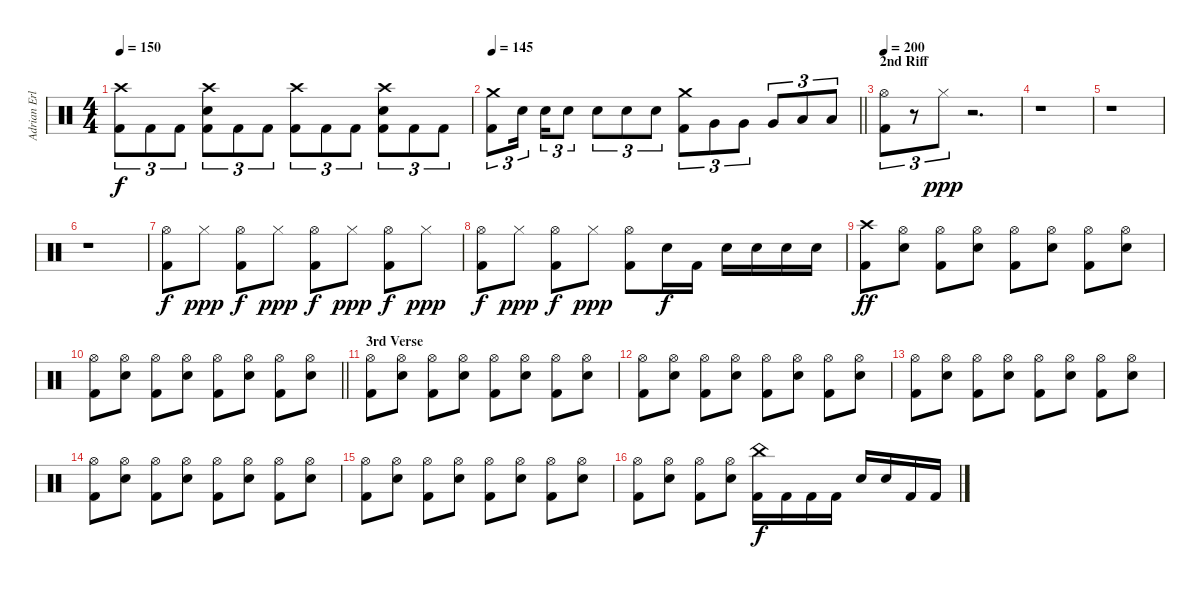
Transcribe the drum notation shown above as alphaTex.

\track ("Adrian Erlandsson" "Adrian Erl") {instrument percussion}
\staff {score}
\articulation defaults
\ts (4 4)
\tempo 150
\clef neutral
\ks c
("Crash high (hit)" "Kick (hit) 2").8{tu (3 2) dy f} "Kick (hit) 2".8{tu (3 2)} "Kick (hit) 2".8{tu (3 2)} ("Crash high (hit)" "Snare (hit) 2" "Kick (hit) 2").8{tu (3 2)} "Kick (hit) 2".8{tu (3 2)} "Kick (hit) 2".8{tu (3 2)} ("Crash high (hit)" "Kick (hit) 2").8{tu (3 2)} "Kick (hit) 2".8{tu (3 2)} "Kick (hit) 2".8{tu (3 2)} ("Crash high (hit)" "Snare (hit) 2" "Kick (hit) 2").8{tu (3 2)} "Kick (hit) 2".8{tu (3 2)} "Kick (hit) 2".8{tu (3 2)} |
\tempo 145
\barLineRight lightlight
("Crash medium (hit)" "Kick (hit) 2").8{tu (3 2)} "Snare (hit) 2".16{tu (3 2) beam splitsecondary} "Snare (hit) 2".16{tu (3 2)} "Snare (hit) 2".8{tu (3 2)} "Snare (hit) 2".8{tu (3 2)} "Snare (hit) 2".8{tu (3 2)} "Snare (hit) 2".8{tu (3 2)} ("Crash medium (hit)" "Kick (hit) 2").8{tu (3 2)} "Very Low Tom (hit)".8{tu (3 2)} "Very Low Tom (hit)".8{tu (3 2)} "Very Low Tom (hit)".8{tu (3 2)} "Low Floor Tom (hit)".8{tu (3 2)} "Low Floor Tom (hit)".8{tu (3 2)} |
\section ("" "2nd Riff")
\tempo 200
("Hi-Hat (open)" "Kick (hit) 2").8{tu (3 2)} r.8{tu (3 2)} "Hi-Hat (closed)".8{tu (3 2) dy ppp} r.2{d} |
r.1 |
r.1 |
r.1 |
("Hi-Hat (open)" "Kick (hit) 2").8{dy f} "Hi-Hat (closed)".8{dy ppp} ("Hi-Hat (open)" "Kick (hit) 2").8{dy f} "Hi-Hat (closed)".8{dy ppp} ("Hi-Hat (open)" "Kick (hit) 2").8{dy f} "Hi-Hat (closed)".8{dy ppp} ("Hi-Hat (open)" "Kick (hit) 2").8{dy f} "Hi-Hat (closed)".8{dy ppp} |
("Hi-Hat (open)" "Kick (hit) 2").8{dy f} "Hi-Hat (closed)".8{dy ppp} ("Hi-Hat (open)" "Kick (hit) 2").8{dy f} "Hi-Hat (closed)".8{dy ppp} ("Hi-Hat (open)" "Kick (hit) 2").8 "Snare (hit) 2".16{dy f} "Kick (hit) 2".16 "Snare (hit) 2".16 "Snare (hit) 2".16 "Snare (hit) 2".16 "Snare (hit) 2".16 |
("Crash high (hit)" "Kick (hit) 2").8{dy ff} ("Hi-Hat (open)" "Snare (hit) 2").8 ("Hi-Hat (open)" "Kick (hit) 2").8 ("Hi-Hat (open)" "Snare (hit) 2").8 ("Hi-Hat (open)" "Kick (hit) 2").8 ("Hi-Hat (open)" "Snare (hit) 2").8 ("Hi-Hat (open)" "Kick (hit) 2").8 ("Hi-Hat (open)" "Snare (hit) 2").8 |
\barLineRight lightlight
("Hi-Hat (open)" "Kick (hit) 2").8 ("Hi-Hat (open)" "Snare (hit) 2").8 ("Hi-Hat (open)" "Kick (hit) 2").8 ("Hi-Hat (open)" "Snare (hit) 2").8 ("Hi-Hat (open)" "Kick (hit) 2").8 ("Hi-Hat (open)" "Snare (hit) 2").8 ("Hi-Hat (open)" "Kick (hit) 2").8 ("Hi-Hat (open)" "Snare (hit) 2").8 |
\section ("" "3rd Verse")
("Hi-Hat (open)" "Kick (hit) 2").8 ("Hi-Hat (open)" "Snare (hit) 2").8 ("Hi-Hat (open)" "Kick (hit) 2").8 ("Hi-Hat (open)" "Snare (hit) 2").8 ("Hi-Hat (open)" "Kick (hit) 2").8 ("Hi-Hat (open)" "Snare (hit) 2").8 ("Hi-Hat (open)" "Kick (hit) 2").8 ("Hi-Hat (open)" "Snare (hit) 2").8 |
("Hi-Hat (open)" "Kick (hit) 2").8 ("Hi-Hat (open)" "Snare (hit) 2").8 ("Hi-Hat (open)" "Kick (hit) 2").8 ("Hi-Hat (open)" "Snare (hit) 2").8 ("Hi-Hat (open)" "Kick (hit) 2").8 ("Hi-Hat (open)" "Snare (hit) 2").8 ("Hi-Hat (open)" "Kick (hit) 2").8 ("Hi-Hat (open)" "Snare (hit) 2").8 |
("Hi-Hat (open)" "Kick (hit) 2").8 ("Hi-Hat (open)" "Snare (hit) 2").8 ("Hi-Hat (open)" "Kick (hit) 2").8 ("Hi-Hat (open)" "Snare (hit) 2").8 ("Hi-Hat (open)" "Kick (hit) 2").8 ("Hi-Hat (open)" "Snare (hit) 2").8 ("Hi-Hat (open)" "Kick (hit) 2").8 ("Hi-Hat (open)" "Snare (hit) 2").8 |
("Hi-Hat (open)" "Kick (hit) 2").8 ("Hi-Hat (open)" "Snare (hit) 2").8 ("Hi-Hat (open)" "Kick (hit) 2").8 ("Hi-Hat (open)" "Snare (hit) 2").8 ("Hi-Hat (open)" "Kick (hit) 2").8 ("Hi-Hat (open)" "Snare (hit) 2").8 ("Hi-Hat (open)" "Kick (hit) 2").8 ("Hi-Hat (open)" "Snare (hit) 2").8 |
("Hi-Hat (open)" "Kick (hit) 2").8 ("Hi-Hat (open)" "Snare (hit) 2").8 ("Hi-Hat (open)" "Kick (hit) 2").8 ("Hi-Hat (open)" "Snare (hit) 2").8 ("Hi-Hat (open)" "Kick (hit) 2").8 ("Hi-Hat (open)" "Snare (hit) 2").8 ("Hi-Hat (open)" "Kick (hit) 2").8 ("Hi-Hat (open)" "Snare (hit) 2").8 |
("Hi-Hat (open)" "Kick (hit) 2").8 ("Hi-Hat (open)" "Snare (hit) 2").8 ("Hi-Hat (open)" "Kick (hit) 2").8 ("Hi-Hat (open)" "Snare (hit) 2").8 ("China (hit)" "Kick (hit) 2").16{dy f} "Kick (hit) 2".16 "Kick (hit) 2".16 "Kick (hit) 2".16 "Snare (hit) 2".16 "Snare (hit) 2".16 "Kick (hit) 2".16 "Kick (hit) 2".16
